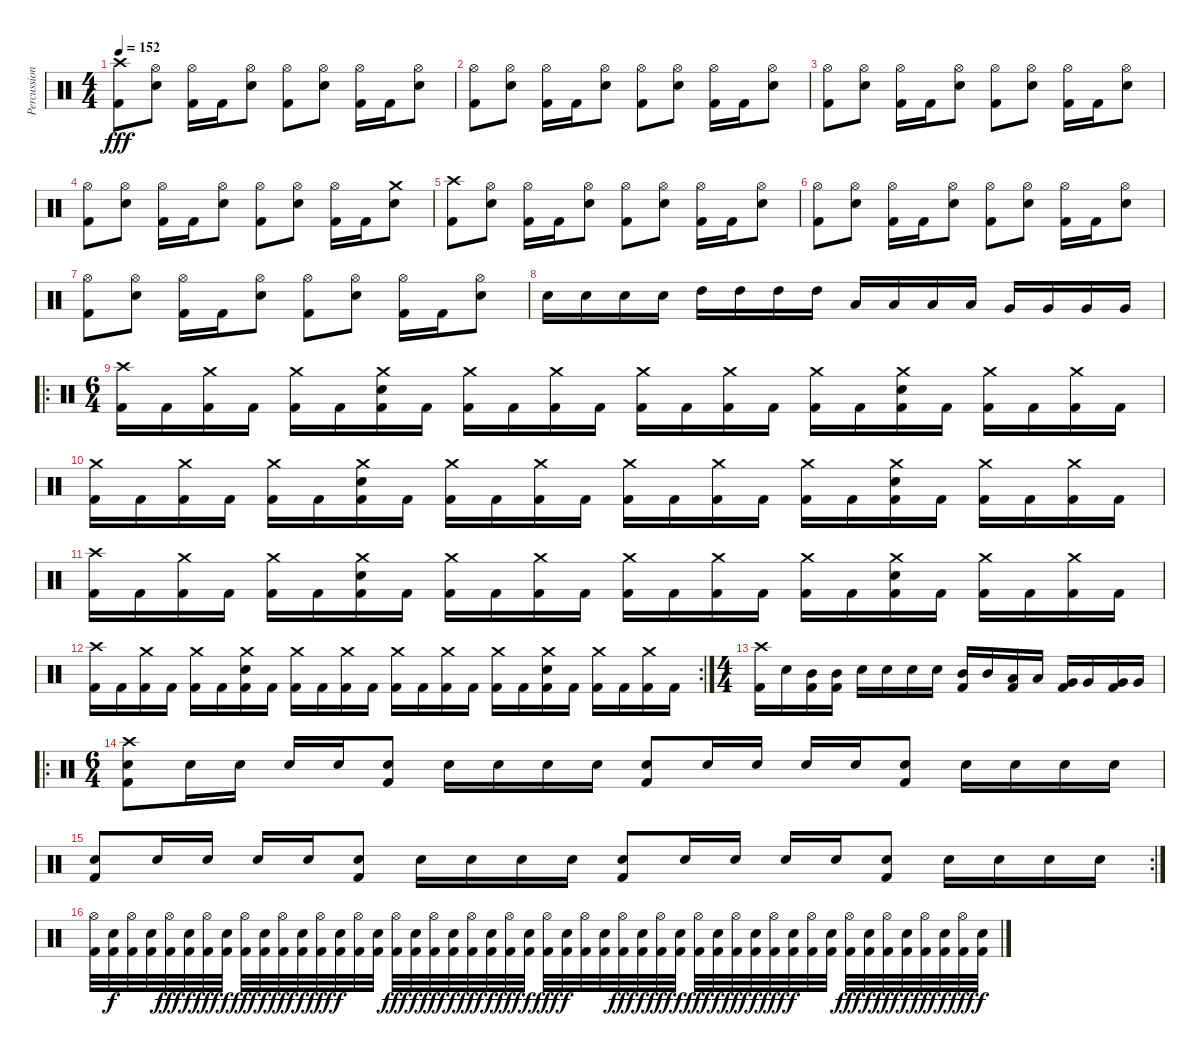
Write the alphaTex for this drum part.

\track ("Percussion" "Percussion") {instrument percussion}
\staff {score}
\articulation defaults
\ts (4 4)
\tempo 152
\clef neutral
\ks c
("Crash high (hit)" "Kick (hit) 2").8{dy fff} ("Hi-Hat (open)" "Snare (hit) 2").8 ("Hi-Hat (open)" "Kick (hit) 2").16 "Kick (hit) 2".16 ("Hi-Hat (open)" "Snare (hit) 2").8 ("Hi-Hat (open)" "Kick (hit) 2").8 ("Hi-Hat (open)" "Snare (hit) 2").8 ("Hi-Hat (open)" "Kick (hit) 2").16 "Kick (hit) 2".16 ("Hi-Hat (open)" "Snare (hit) 2").8 |
("Hi-Hat (open)" "Kick (hit) 2").8 ("Hi-Hat (open)" "Snare (hit) 2").8 ("Hi-Hat (open)" "Kick (hit) 2").16 "Kick (hit) 2".16 ("Hi-Hat (open)" "Snare (hit) 2").8 ("Hi-Hat (open)" "Kick (hit) 2").8 ("Hi-Hat (open)" "Snare (hit) 2").8 ("Hi-Hat (open)" "Kick (hit) 2").16 "Kick (hit) 2".16 ("Hi-Hat (open)" "Snare (hit) 2").8 |
("Hi-Hat (open)" "Kick (hit) 2").8 ("Hi-Hat (open)" "Snare (hit) 2").8 ("Hi-Hat (open)" "Kick (hit) 2").16 "Kick (hit) 2".16 ("Hi-Hat (open)" "Snare (hit) 2").8 ("Hi-Hat (open)" "Kick (hit) 2").8 ("Hi-Hat (open)" "Snare (hit) 2").8 ("Hi-Hat (open)" "Kick (hit) 2").16 "Kick (hit) 2".16 ("Hi-Hat (open)" "Snare (hit) 2").8 |
("Hi-Hat (open)" "Kick (hit) 2").8 ("Hi-Hat (open)" "Snare (hit) 2").8 ("Hi-Hat (open)" "Kick (hit) 2").16 "Kick (hit) 2".16 ("Hi-Hat (open)" "Snare (hit) 2").8 ("Hi-Hat (open)" "Kick (hit) 2").8 ("Hi-Hat (open)" "Snare (hit) 2").8 ("Hi-Hat (open)" "Kick (hit) 2").16 "Kick (hit) 2".16 ("Crash medium (hit)" "Snare (hit) 2").8 |
("Crash high (hit)" "Kick (hit) 2").8 ("Hi-Hat (open)" "Snare (hit) 2").8 ("Hi-Hat (open)" "Kick (hit) 2").16 "Kick (hit) 2".16 ("Hi-Hat (open)" "Snare (hit) 2").8 ("Hi-Hat (open)" "Kick (hit) 2").8 ("Hi-Hat (open)" "Snare (hit) 2").8 ("Hi-Hat (open)" "Kick (hit) 2").16 "Kick (hit) 2".16 ("Hi-Hat (open)" "Snare (hit) 2").8 |
("Hi-Hat (open)" "Kick (hit) 2").8 ("Hi-Hat (open)" "Snare (hit) 2").8 ("Hi-Hat (open)" "Kick (hit) 2").16 "Kick (hit) 2".16 ("Hi-Hat (open)" "Snare (hit) 2").8 ("Hi-Hat (open)" "Kick (hit) 2").8 ("Hi-Hat (open)" "Snare (hit) 2").8 ("Hi-Hat (open)" "Kick (hit) 2").16 "Kick (hit) 2".16 ("Hi-Hat (open)" "Snare (hit) 2").8 |
("Hi-Hat (open)" "Kick (hit) 2").8 ("Hi-Hat (open)" "Snare (hit) 2").8 ("Hi-Hat (open)" "Kick (hit) 2").16 "Kick (hit) 2".16 ("Hi-Hat (open)" "Snare (hit) 2").8 ("Hi-Hat (open)" "Kick (hit) 2").8 ("Hi-Hat (open)" "Snare (hit) 2").8 ("Hi-Hat (open)" "Kick (hit) 2").16 "Kick (hit) 2".16 ("Hi-Hat (open)" "Snare (hit) 2").8 |
"Snare (hit) 2".16 "Snare (hit) 2".16 "Snare (hit) 2".16 "Snare (hit) 2".16 "High Tom (hit)".16 "High Tom (hit)".16 "High Tom (hit)".16 "High Tom (hit)".16 "Low Tom (hit)".16 "Low Tom (hit)".16 "Low Tom (hit)".16 "Low Tom (hit)".16 "Very Low Tom (hit)".16 "Very Low Tom (hit)".16 "Very Low Tom (hit)".16 "Very Low Tom (hit)".16 |
\ro
\ts (6 4)
("Crash high (hit)" "Kick (hit) 2").16 "Kick (hit) 2".16 ("Crash medium (hit)" "Kick (hit) 2").16 "Kick (hit) 2".16 ("Crash medium (hit)" "Kick (hit) 2").16 "Kick (hit) 2".16 ("Snare (hit) 2" "Crash medium (hit)" "Kick (hit) 2").16 "Kick (hit) 2".16 ("Crash medium (hit)" "Kick (hit) 2").16 "Kick (hit) 2".16 ("Crash medium (hit)" "Kick (hit) 2").16 "Kick (hit) 2".16 ("Crash medium (hit)" "Kick (hit) 2").16 "Kick (hit) 2".16 ("Crash medium (hit)" "Kick (hit) 2").16 "Kick (hit) 2".16 ("Crash medium (hit)" "Kick (hit) 2").16 "Kick (hit) 2".16 ("Snare (hit) 2" "Crash medium (hit)" "Kick (hit) 2").16 "Kick (hit) 2".16 ("Crash medium (hit)" "Kick (hit) 2").16 "Kick (hit) 2".16 ("Crash medium (hit)" "Kick (hit) 2").16 "Kick (hit) 2".16 |
("Crash medium (hit)" "Kick (hit) 2").16 "Kick (hit) 2".16 ("Crash medium (hit)" "Kick (hit) 2").16 "Kick (hit) 2".16 ("Crash medium (hit)" "Kick (hit) 2").16 "Kick (hit) 2".16 ("Snare (hit) 2" "Crash medium (hit)" "Kick (hit) 2").16 "Kick (hit) 2".16 ("Crash medium (hit)" "Kick (hit) 2").16 "Kick (hit) 2".16 ("Crash medium (hit)" "Kick (hit) 2").16 "Kick (hit) 2".16 ("Crash medium (hit)" "Kick (hit) 2").16 "Kick (hit) 2".16 ("Crash medium (hit)" "Kick (hit) 2").16 "Kick (hit) 2".16 ("Crash medium (hit)" "Kick (hit) 2").16 "Kick (hit) 2".16 ("Snare (hit) 2" "Crash medium (hit)" "Kick (hit) 2").16 "Kick (hit) 2".16 ("Crash medium (hit)" "Kick (hit) 2").16 "Kick (hit) 2".16 ("Crash medium (hit)" "Kick (hit) 2").16 "Kick (hit) 2".16 |
("Crash high (hit)" "Kick (hit) 2").16 "Kick (hit) 2".16 ("Crash medium (hit)" "Kick (hit) 2").16 "Kick (hit) 2".16 ("Crash medium (hit)" "Kick (hit) 2").16 "Kick (hit) 2".16 ("Snare (hit) 2" "Crash medium (hit)" "Kick (hit) 2").16 "Kick (hit) 2".16 ("Crash medium (hit)" "Kick (hit) 2").16 "Kick (hit) 2".16 ("Crash medium (hit)" "Kick (hit) 2").16 "Kick (hit) 2".16 ("Crash medium (hit)" "Kick (hit) 2").16 "Kick (hit) 2".16 ("Crash medium (hit)" "Kick (hit) 2").16 "Kick (hit) 2".16 ("Crash medium (hit)" "Kick (hit) 2").16 "Kick (hit) 2".16 ("Snare (hit) 2" "Crash medium (hit)" "Kick (hit) 2").16 "Kick (hit) 2".16 ("Crash medium (hit)" "Kick (hit) 2").16 "Kick (hit) 2".16 ("Crash medium (hit)" "Kick (hit) 2").16 "Kick (hit) 2".16 |
\rc 2
("Crash high (hit)" "Kick (hit) 2").16 "Kick (hit) 2".16 ("Crash medium (hit)" "Kick (hit) 2").16 "Kick (hit) 2".16 ("Crash medium (hit)" "Kick (hit) 2").16 "Kick (hit) 2".16 ("Snare (hit) 2" "Crash medium (hit)" "Kick (hit) 2").16 "Kick (hit) 2".16 ("Crash medium (hit)" "Kick (hit) 2").16 "Kick (hit) 2".16 ("Crash medium (hit)" "Kick (hit) 2").16 "Kick (hit) 2".16 ("Crash medium (hit)" "Kick (hit) 2").16 "Kick (hit) 2".16 ("Crash medium (hit)" "Kick (hit) 2").16 "Kick (hit) 2".16 ("Crash medium (hit)" "Kick (hit) 2").16 "Kick (hit) 2".16 ("Snare (hit) 2" "Crash medium (hit)" "Kick (hit) 2").16 "Kick (hit) 2".16 ("Crash medium (hit)" "Kick (hit) 2").16 "Kick (hit) 2".16 ("Crash medium (hit)" "Kick (hit) 2").16 "Kick (hit) 2".16 |
\ts (4 4)
("Crash high (hit)" "Kick (hit) 2").16 "Snare (hit) 2".16 ("Mid Tom (hit)" "Kick (hit) 2").16 ("Mid Tom (hit)" "Kick (hit) 2").16 "Snare (hit) 2".16 "Snare (hit) 2".16 "Snare (hit) 2".16 "Snare (hit) 2".16 ("Kick (hit) 2" "Mid Tom (hit)").16 "Mid Tom (hit)".16 ("Kick (hit) 2" "Low Tom (hit)").16 "Low Tom (hit)".16 ("Kick (hit) 2" "Very Low Tom (hit)").16 "Very Low Tom (hit)".16 ("Kick (hit) 2" "Very Low Tom (hit)").16 "Very Low Tom (hit)".16 |
\ro
\ts (6 4)
("Kick (hit) 2" "Crash high (hit)" "Snare (hit) 2").8 "Snare (hit) 2".16 "Snare (hit) 2".16 "Snare (hit) 2".16 "Snare (hit) 2".16 ("Kick (hit) 2" "Snare (hit) 2").8 "Snare (hit) 2".16 "Snare (hit) 2".16 "Snare (hit) 2".16 "Snare (hit) 2".16 ("Kick (hit) 2" "Snare (hit) 2").8 "Snare (hit) 2".16 "Snare (hit) 2".16 "Snare (hit) 2".16 "Snare (hit) 2".16 ("Kick (hit) 2" "Snare (hit) 2").8 "Snare (hit) 2".16 "Snare (hit) 2".16 "Snare (hit) 2".16 "Snare (hit) 2".16 |
\rc 2
("Kick (hit) 2" "Snare (hit) 2").8 "Snare (hit) 2".16 "Snare (hit) 2".16 "Snare (hit) 2".16 "Snare (hit) 2".16 ("Kick (hit) 2" "Snare (hit) 2").8 "Snare (hit) 2".16 "Snare (hit) 2".16 "Snare (hit) 2".16 "Snare (hit) 2".16 ("Kick (hit) 2" "Snare (hit) 2").8 "Snare (hit) 2".16 "Snare (hit) 2".16 "Snare (hit) 2".16 "Snare (hit) 2".16 ("Kick (hit) 2" "Snare (hit) 2").8 "Snare (hit) 2".16 "Snare (hit) 2".16 "Snare (hit) 2".16 "Snare (hit) 2".16 |
("Hi-Hat (open)" "Kick (hit) 2").32 ("Snare (hit) 2" "Kick (hit) 2").32{dy f} ("Hi-Hat (open)" "Kick (hit) 2").32 ("Snare (hit) 2" "Kick (hit) 2").32 ("Hi-Hat (open)" "Kick (hit) 2").32{dy fff} ("Snare (hit) 2" "Kick (hit) 2").32{dy f} ("Hi-Hat (open)" "Kick (hit) 2").32{dy fff} ("Snare (hit) 2" "Kick (hit) 2").32{dy f} ("Hi-Hat (open)" "Kick (hit) 2").32{dy fff} ("Snare (hit) 2" "Kick (hit) 2").32{dy f} ("Hi-Hat (open)" "Kick (hit) 2").32{dy fff} ("Snare (hit) 2" "Kick (hit) 2").32{dy f} ("Hi-Hat (open)" "Kick (hit) 2").32{dy fff} ("Snare (hit) 2" "Kick (hit) 2").32{dy f} ("Hi-Hat (open)" "Kick (hit) 2").32 ("Snare (hit) 2" "Kick (hit) 2").32 ("Hi-Hat (open)" "Kick (hit) 2").32{dy fff} ("Snare (hit) 2" "Kick (hit) 2").32{dy f} ("Hi-Hat (open)" "Kick (hit) 2").32{dy fff} ("Snare (hit) 2" "Kick (hit) 2").32{dy f} ("Hi-Hat (open)" "Kick (hit) 2").32{dy fff} ("Snare (hit) 2" "Kick (hit) 2").32{dy f} ("Hi-Hat (open)" "Kick (hit) 2").32{dy fff} ("Snare (hit) 2" "Kick (hit) 2").32{dy f} ("Hi-Hat (open)" "Kick (hit) 2").32{dy fff} ("Snare (hit) 2" "Kick (hit) 2").32{dy f} ("Hi-Hat (open)" "Kick (hit) 2").32 ("Snare (hit) 2" "Kick (hit) 2").32 ("Hi-Hat (open)" "Kick (hit) 2").32{dy fff} ("Snare (hit) 2" "Kick (hit) 2").32{dy f} ("Hi-Hat (open)" "Kick (hit) 2").32{dy fff} ("Snare (hit) 2" "Kick (hit) 2").32{dy f} ("Hi-Hat (open)" "Kick (hit) 2").32{dy fff} ("Snare (hit) 2" "Kick (hit) 2").32{dy f} ("Hi-Hat (open)" "Kick (hit) 2").32{dy fff} ("Snare (hit) 2" "Kick (hit) 2").32{dy f} ("Hi-Hat (open)" "Kick (hit) 2").32{dy fff} ("Snare (hit) 2" "Kick (hit) 2").32{dy f} ("Hi-Hat (open)" "Kick (hit) 2").32 ("Snare (hit) 2" "Kick (hit) 2").32 ("Hi-Hat (open)" "Kick (hit) 2").32{dy fff} ("Snare (hit) 2" "Kick (hit) 2").32{dy f} ("Hi-Hat (open)" "Kick (hit) 2").32{dy fff} ("Snare (hit) 2" "Kick (hit) 2").32{dy f} ("Hi-Hat (open)" "Kick (hit) 2").32{dy fff} ("Snare (hit) 2" "Kick (hit) 2").32{dy f} ("Hi-Hat (open)" "Kick (hit) 2").32{dy fff} ("Snare (hit) 2" "Kick (hit) 2").32{dy f}
